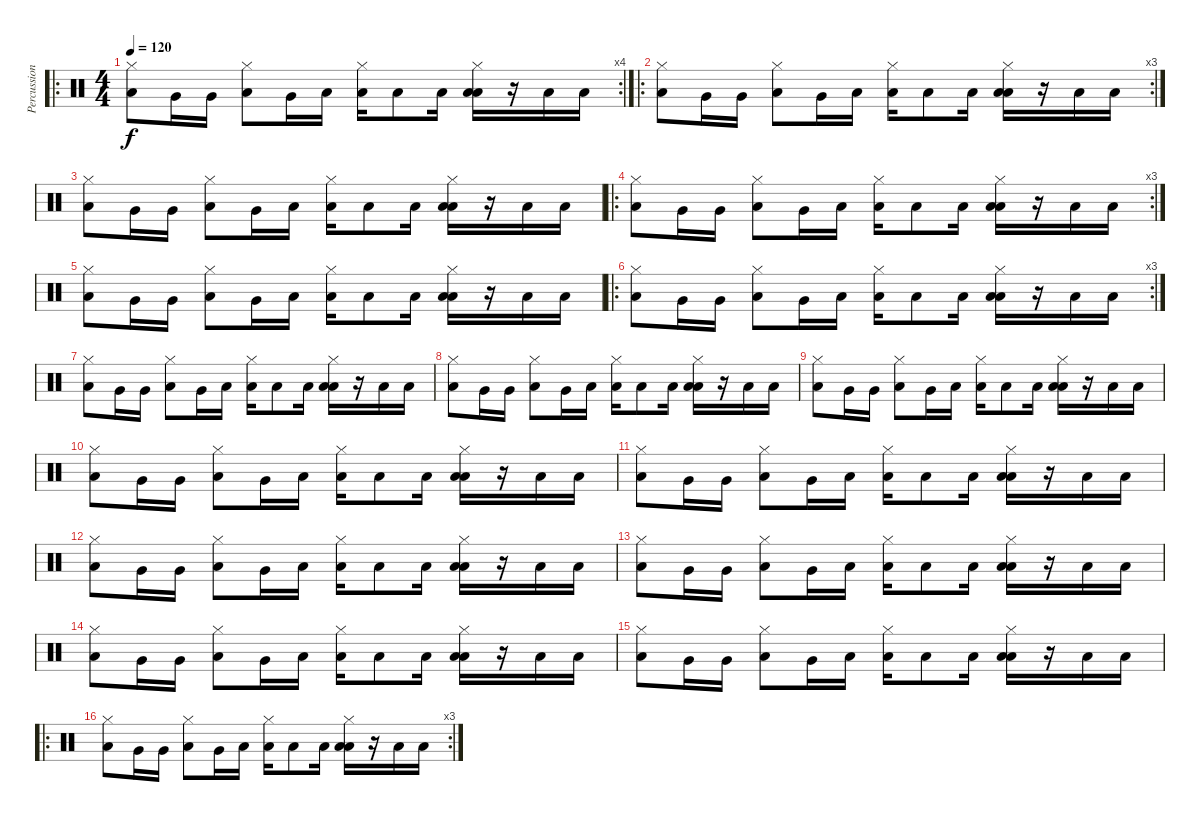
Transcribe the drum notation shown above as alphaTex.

\track ("Percussion" "Percussion") {instrument percussion}
\staff {score}
\articulation defaults
\ro
\rc 4
\ts (4 4)
\tempo 120
\clef neutral
\ks c
("Hi-Hat (closed)" "Low Floor Tom (hit)").8{dy f} "Very Low Tom (hit)".16 "Very Low Tom (hit)".16 ("Hi-Hat (closed)" "Low Floor Tom (hit)").8 "Very Low Tom (hit)".16 "Low Tom (hit)".16 ("Hi-Hat (closed)" "Low Floor Tom (hit)").16 "Low Tom (hit)".8 "Low Tom (hit)".16 ("Low Tom (hit)" "Hi-Hat (closed)" "Low Floor Tom (hit)").16 r.16 "Low Tom (hit)".16 "Low Tom (hit)".16 |
\ro
\rc 3
("Hi-Hat (closed)" "Low Floor Tom (hit)").8 "Very Low Tom (hit)".16 "Very Low Tom (hit)".16 ("Hi-Hat (closed)" "Low Floor Tom (hit)").8 "Very Low Tom (hit)".16 "Low Tom (hit)".16 ("Hi-Hat (closed)" "Low Floor Tom (hit)").16 "Low Tom (hit)".8 "Low Tom (hit)".16 ("Low Tom (hit)" "Hi-Hat (closed)" "Low Floor Tom (hit)").16 r.16 "Low Tom (hit)".16 "Low Tom (hit)".16 |
("Hi-Hat (closed)" "Low Floor Tom (hit)").8 "Very Low Tom (hit)".16 "Very Low Tom (hit)".16 ("Hi-Hat (closed)" "Low Floor Tom (hit)").8 "Very Low Tom (hit)".16 "Low Tom (hit)".16 ("Hi-Hat (closed)" "Low Floor Tom (hit)").16 "Low Tom (hit)".8 "Low Tom (hit)".16 ("Low Tom (hit)" "Hi-Hat (closed)" "Low Floor Tom (hit)").16 r.16 "Low Tom (hit)".16 "Low Tom (hit)".16 |
\ro
\rc 3
("Hi-Hat (closed)" "Low Floor Tom (hit)").8 "Very Low Tom (hit)".16 "Very Low Tom (hit)".16 ("Hi-Hat (closed)" "Low Floor Tom (hit)").8 "Very Low Tom (hit)".16 "Low Tom (hit)".16 ("Hi-Hat (closed)" "Low Floor Tom (hit)").16 "Low Tom (hit)".8 "Low Tom (hit)".16 ("Low Tom (hit)" "Hi-Hat (closed)" "Low Floor Tom (hit)").16 r.16 "Low Tom (hit)".16 "Low Tom (hit)".16 |
("Hi-Hat (closed)" "Low Floor Tom (hit)").8 "Very Low Tom (hit)".16 "Very Low Tom (hit)".16 ("Hi-Hat (closed)" "Low Floor Tom (hit)").8 "Very Low Tom (hit)".16 "Low Tom (hit)".16 ("Hi-Hat (closed)" "Low Floor Tom (hit)").16 "Low Tom (hit)".8 "Low Tom (hit)".16 ("Low Tom (hit)" "Hi-Hat (closed)" "Low Floor Tom (hit)").16 r.16 "Low Tom (hit)".16 "Low Tom (hit)".16 |
\ro
\rc 3
("Hi-Hat (closed)" "Low Floor Tom (hit)").8 "Very Low Tom (hit)".16 "Very Low Tom (hit)".16 ("Hi-Hat (closed)" "Low Floor Tom (hit)").8 "Very Low Tom (hit)".16 "Low Tom (hit)".16 ("Hi-Hat (closed)" "Low Floor Tom (hit)").16 "Low Tom (hit)".8 "Low Tom (hit)".16 ("Low Tom (hit)" "Hi-Hat (closed)" "Low Floor Tom (hit)").16 r.16 "Low Tom (hit)".16 "Low Tom (hit)".16 |
("Hi-Hat (closed)" "Low Floor Tom (hit)").8 "Very Low Tom (hit)".16 "Very Low Tom (hit)".16 ("Hi-Hat (closed)" "Low Floor Tom (hit)").8 "Very Low Tom (hit)".16 "Low Tom (hit)".16 ("Hi-Hat (closed)" "Low Floor Tom (hit)").16 "Low Tom (hit)".8 "Low Tom (hit)".16 ("Low Tom (hit)" "Hi-Hat (closed)" "Low Floor Tom (hit)").16 r.16 "Low Tom (hit)".16 "Low Tom (hit)".16 |
("Hi-Hat (closed)" "Low Floor Tom (hit)").8 "Very Low Tom (hit)".16 "Very Low Tom (hit)".16 ("Hi-Hat (closed)" "Low Floor Tom (hit)").8 "Very Low Tom (hit)".16 "Low Tom (hit)".16 ("Hi-Hat (closed)" "Low Floor Tom (hit)").16 "Low Tom (hit)".8 "Low Tom (hit)".16 ("Low Tom (hit)" "Hi-Hat (closed)" "Low Floor Tom (hit)").16 r.16 "Low Tom (hit)".16 "Low Tom (hit)".16 |
("Hi-Hat (closed)" "Low Floor Tom (hit)").8 "Very Low Tom (hit)".16 "Very Low Tom (hit)".16 ("Hi-Hat (closed)" "Low Floor Tom (hit)").8 "Very Low Tom (hit)".16 "Low Tom (hit)".16 ("Hi-Hat (closed)" "Low Floor Tom (hit)").16 "Low Tom (hit)".8 "Low Tom (hit)".16 ("Low Tom (hit)" "Hi-Hat (closed)" "Low Floor Tom (hit)").16 r.16 "Low Tom (hit)".16 "Low Tom (hit)".16 |
("Hi-Hat (closed)" "Low Floor Tom (hit)").8 "Very Low Tom (hit)".16 "Very Low Tom (hit)".16 ("Hi-Hat (closed)" "Low Floor Tom (hit)").8 "Very Low Tom (hit)".16 "Low Tom (hit)".16 ("Hi-Hat (closed)" "Low Floor Tom (hit)").16 "Low Tom (hit)".8 "Low Tom (hit)".16 ("Low Tom (hit)" "Hi-Hat (closed)" "Low Floor Tom (hit)").16 r.16 "Low Tom (hit)".16 "Low Tom (hit)".16 |
("Hi-Hat (closed)" "Low Floor Tom (hit)").8 "Very Low Tom (hit)".16 "Very Low Tom (hit)".16 ("Hi-Hat (closed)" "Low Floor Tom (hit)").8 "Very Low Tom (hit)".16 "Low Tom (hit)".16 ("Hi-Hat (closed)" "Low Floor Tom (hit)").16 "Low Tom (hit)".8 "Low Tom (hit)".16 ("Low Tom (hit)" "Hi-Hat (closed)" "Low Floor Tom (hit)").16 r.16 "Low Tom (hit)".16 "Low Tom (hit)".16 |
("Hi-Hat (closed)" "Low Floor Tom (hit)").8 "Very Low Tom (hit)".16 "Very Low Tom (hit)".16 ("Hi-Hat (closed)" "Low Floor Tom (hit)").8 "Very Low Tom (hit)".16 "Low Tom (hit)".16 ("Hi-Hat (closed)" "Low Floor Tom (hit)").16 "Low Tom (hit)".8 "Low Tom (hit)".16 ("Low Tom (hit)" "Hi-Hat (closed)" "Low Floor Tom (hit)").16 r.16 "Low Tom (hit)".16 "Low Tom (hit)".16 |
("Hi-Hat (closed)" "Low Floor Tom (hit)").8 "Very Low Tom (hit)".16 "Very Low Tom (hit)".16 ("Hi-Hat (closed)" "Low Floor Tom (hit)").8 "Very Low Tom (hit)".16 "Low Tom (hit)".16 ("Hi-Hat (closed)" "Low Floor Tom (hit)").16 "Low Tom (hit)".8 "Low Tom (hit)".16 ("Low Tom (hit)" "Hi-Hat (closed)" "Low Floor Tom (hit)").16 r.16 "Low Tom (hit)".16 "Low Tom (hit)".16 |
("Hi-Hat (closed)" "Low Floor Tom (hit)").8 "Very Low Tom (hit)".16 "Very Low Tom (hit)".16 ("Hi-Hat (closed)" "Low Floor Tom (hit)").8 "Very Low Tom (hit)".16 "Low Tom (hit)".16 ("Hi-Hat (closed)" "Low Floor Tom (hit)").16 "Low Tom (hit)".8 "Low Tom (hit)".16 ("Low Tom (hit)" "Hi-Hat (closed)" "Low Floor Tom (hit)").16 r.16 "Low Tom (hit)".16 "Low Tom (hit)".16 |
("Hi-Hat (closed)" "Low Floor Tom (hit)").8 "Very Low Tom (hit)".16 "Very Low Tom (hit)".16 ("Hi-Hat (closed)" "Low Floor Tom (hit)").8 "Very Low Tom (hit)".16 "Low Tom (hit)".16 ("Hi-Hat (closed)" "Low Floor Tom (hit)").16 "Low Tom (hit)".8 "Low Tom (hit)".16 ("Low Tom (hit)" "Hi-Hat (closed)" "Low Floor Tom (hit)").16 r.16 "Low Tom (hit)".16 "Low Tom (hit)".16 |
\ro
\rc 3
("Hi-Hat (closed)" "Low Floor Tom (hit)").8 "Very Low Tom (hit)".16 "Very Low Tom (hit)".16 ("Hi-Hat (closed)" "Low Floor Tom (hit)").8 "Very Low Tom (hit)".16 "Low Tom (hit)".16 ("Hi-Hat (closed)" "Low Floor Tom (hit)").16 "Low Tom (hit)".8 "Low Tom (hit)".16 ("Low Tom (hit)" "Hi-Hat (closed)" "Low Floor Tom (hit)").16 r.16 "Low Tom (hit)".16 "Low Tom (hit)".16
